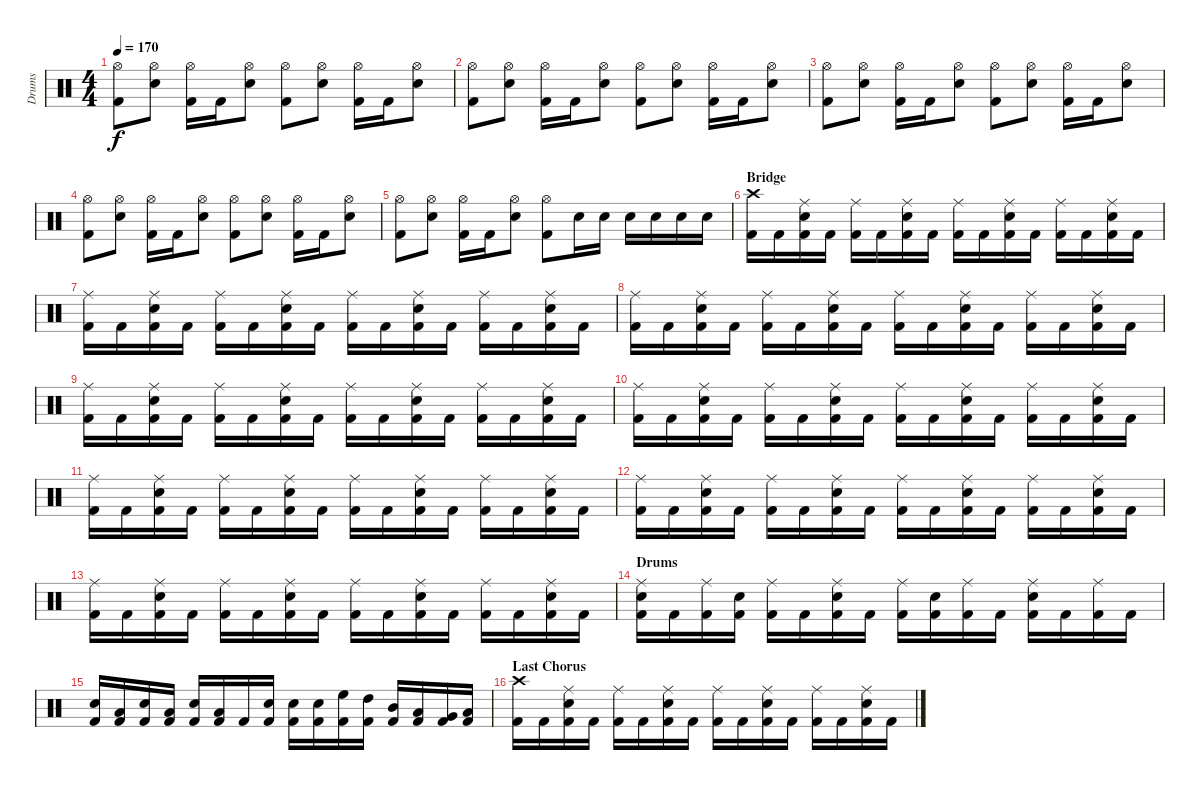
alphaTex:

\track ("Drums" "Drums") {instrument percussion}
\staff {score}
\articulation defaults
\ts (4 4)
\tempo 170
\clef neutral
\ks c
("Hi-Hat (open)" "Kick (hit) 2").8{dy f} ("Hi-Hat (open)" "Electric Snare (hit)").8 ("Hi-Hat (open)" "Kick (hit) 2").16 "Kick (hit) 2".16 ("Hi-Hat (open)" "Electric Snare (hit)").8 ("Hi-Hat (open)" "Kick (hit) 2").8 ("Hi-Hat (open)" "Electric Snare (hit)").8 ("Hi-Hat (open)" "Kick (hit) 2").16 "Kick (hit) 2".16 ("Hi-Hat (open)" "Electric Snare (hit)").8 |
("Hi-Hat (open)" "Kick (hit) 2").8 ("Hi-Hat (open)" "Electric Snare (hit)").8 ("Hi-Hat (open)" "Kick (hit) 2").16 "Kick (hit) 2".16 ("Hi-Hat (open)" "Electric Snare (hit)").8 ("Hi-Hat (open)" "Kick (hit) 2").8 ("Hi-Hat (open)" "Electric Snare (hit)").8 ("Hi-Hat (open)" "Kick (hit) 2").16 "Kick (hit) 2".16 ("Hi-Hat (open)" "Electric Snare (hit)").8 |
("Hi-Hat (open)" "Kick (hit) 2").8 ("Hi-Hat (open)" "Electric Snare (hit)").8 ("Hi-Hat (open)" "Kick (hit) 2").16 "Kick (hit) 2".16 ("Hi-Hat (open)" "Electric Snare (hit)").8 ("Hi-Hat (open)" "Kick (hit) 2").8 ("Hi-Hat (open)" "Electric Snare (hit)").8 ("Hi-Hat (open)" "Kick (hit) 2").16 "Kick (hit) 2".16 ("Hi-Hat (open)" "Electric Snare (hit)").8 |
("Hi-Hat (open)" "Kick (hit) 2").8 ("Hi-Hat (open)" "Electric Snare (hit)").8 ("Hi-Hat (open)" "Kick (hit) 2").16 "Kick (hit) 2".16 ("Hi-Hat (open)" "Electric Snare (hit)").8 ("Hi-Hat (open)" "Kick (hit) 2").8 ("Hi-Hat (open)" "Electric Snare (hit)").8 ("Hi-Hat (open)" "Kick (hit) 2").16 "Kick (hit) 2".16 ("Hi-Hat (open)" "Electric Snare (hit)").8 |
("Hi-Hat (open)" "Kick (hit) 2").8 ("Hi-Hat (open)" "Electric Snare (hit)").8 ("Hi-Hat (open)" "Kick (hit) 2").16 "Kick (hit) 2".16 ("Hi-Hat (open)" "Electric Snare (hit)").8 ("Hi-Hat (open)" "Kick (hit) 2").8 "Electric Snare (hit)".16 "Electric Snare (hit)".16 "Electric Snare (hit)".16 "Electric Snare (hit)".16 "Electric Snare (hit)".16 "Electric Snare (hit)".16 |
\section ("" "Bridge")
("Crash high (hit)" "Kick (hit) 2").16 "Kick (hit) 2".16 ("Ride (middle)" "Electric Snare (hit)" "Kick (hit) 2").16 "Kick (hit) 2".16 ("Ride (middle)" "Kick (hit) 2").16 "Kick (hit) 2".16 ("Ride (middle)" "Electric Snare (hit)" "Kick (hit) 2").16 "Kick (hit) 2".16 ("Ride (middle)" "Kick (hit) 2").16 "Kick (hit) 2".16 ("Ride (middle)" "Electric Snare (hit)" "Kick (hit) 2").16 "Kick (hit) 2".16 ("Ride (middle)" "Kick (hit) 2").16 "Kick (hit) 2".16 ("Ride (middle)" "Electric Snare (hit)" "Kick (hit) 2").16 "Kick (hit) 2".16 |
("Ride (middle)" "Kick (hit) 2").16 "Kick (hit) 2".16 ("Ride (middle)" "Electric Snare (hit)" "Kick (hit) 2").16 "Kick (hit) 2".16 ("Ride (middle)" "Kick (hit) 2").16 "Kick (hit) 2".16 ("Ride (middle)" "Electric Snare (hit)" "Kick (hit) 2").16 "Kick (hit) 2".16 ("Ride (middle)" "Kick (hit) 2").16 "Kick (hit) 2".16 ("Ride (middle)" "Electric Snare (hit)" "Kick (hit) 2").16 "Kick (hit) 2".16 ("Ride (middle)" "Kick (hit) 2").16 "Kick (hit) 2".16 ("Ride (middle)" "Electric Snare (hit)" "Kick (hit) 2").16 "Kick (hit) 2".16 |
("Ride (middle)" "Kick (hit) 2").16 "Kick (hit) 2".16 ("Ride (middle)" "Electric Snare (hit)" "Kick (hit) 2").16 "Kick (hit) 2".16 ("Ride (middle)" "Kick (hit) 2").16 "Kick (hit) 2".16 ("Ride (middle)" "Electric Snare (hit)" "Kick (hit) 2").16 "Kick (hit) 2".16 ("Ride (middle)" "Kick (hit) 2").16 "Kick (hit) 2".16 ("Ride (middle)" "Electric Snare (hit)" "Kick (hit) 2").16 "Kick (hit) 2".16 ("Ride (middle)" "Kick (hit) 2").16 "Kick (hit) 2".16 ("Ride (middle)" "Electric Snare (hit)" "Kick (hit) 2").16 "Kick (hit) 2".16 |
("Ride (middle)" "Kick (hit) 2").16 "Kick (hit) 2".16 ("Ride (middle)" "Electric Snare (hit)" "Kick (hit) 2").16 "Kick (hit) 2".16 ("Ride (middle)" "Kick (hit) 2").16 "Kick (hit) 2".16 ("Ride (middle)" "Electric Snare (hit)" "Kick (hit) 2").16 "Kick (hit) 2".16 ("Ride (middle)" "Kick (hit) 2").16 "Kick (hit) 2".16 ("Ride (middle)" "Electric Snare (hit)" "Kick (hit) 2").16 "Kick (hit) 2".16 ("Ride (middle)" "Kick (hit) 2").16 "Kick (hit) 2".16 ("Ride (middle)" "Electric Snare (hit)" "Kick (hit) 2").16 "Kick (hit) 2".16 |
("Ride (middle)" "Kick (hit) 2").16 "Kick (hit) 2".16 ("Ride (middle)" "Electric Snare (hit)" "Kick (hit) 2").16 "Kick (hit) 2".16 ("Ride (middle)" "Kick (hit) 2").16 "Kick (hit) 2".16 ("Ride (middle)" "Electric Snare (hit)" "Kick (hit) 2").16 "Kick (hit) 2".16 ("Ride (middle)" "Kick (hit) 2").16 "Kick (hit) 2".16 ("Ride (middle)" "Electric Snare (hit)" "Kick (hit) 2").16 "Kick (hit) 2".16 ("Ride (middle)" "Kick (hit) 2").16 "Kick (hit) 2".16 ("Ride (middle)" "Electric Snare (hit)" "Kick (hit) 2").16 "Kick (hit) 2".16 |
("Ride (middle)" "Kick (hit) 2").16 "Kick (hit) 2".16 ("Ride (middle)" "Electric Snare (hit)" "Kick (hit) 2").16 "Kick (hit) 2".16 ("Ride (middle)" "Kick (hit) 2").16 "Kick (hit) 2".16 ("Ride (middle)" "Electric Snare (hit)" "Kick (hit) 2").16 "Kick (hit) 2".16 ("Ride (middle)" "Kick (hit) 2").16 "Kick (hit) 2".16 ("Ride (middle)" "Electric Snare (hit)" "Kick (hit) 2").16 "Kick (hit) 2".16 ("Ride (middle)" "Kick (hit) 2").16 "Kick (hit) 2".16 ("Ride (middle)" "Electric Snare (hit)" "Kick (hit) 2").16 "Kick (hit) 2".16 |
("Ride (middle)" "Kick (hit) 2").16 "Kick (hit) 2".16 ("Ride (middle)" "Electric Snare (hit)" "Kick (hit) 2").16 "Kick (hit) 2".16 ("Ride (middle)" "Kick (hit) 2").16 "Kick (hit) 2".16 ("Ride (middle)" "Electric Snare (hit)" "Kick (hit) 2").16 "Kick (hit) 2".16 ("Ride (middle)" "Kick (hit) 2").16 "Kick (hit) 2".16 ("Ride (middle)" "Electric Snare (hit)" "Kick (hit) 2").16 "Kick (hit) 2".16 ("Ride (middle)" "Kick (hit) 2").16 "Kick (hit) 2".16 ("Ride (middle)" "Electric Snare (hit)" "Kick (hit) 2").16 "Kick (hit) 2".16 |
("Ride (middle)" "Kick (hit) 2").16 "Kick (hit) 2".16 ("Ride (middle)" "Electric Snare (hit)" "Kick (hit) 2").16 "Kick (hit) 2".16 ("Ride (middle)" "Kick (hit) 2").16 "Kick (hit) 2".16 ("Ride (middle)" "Electric Snare (hit)" "Kick (hit) 2").16 "Kick (hit) 2".16 ("Ride (middle)" "Kick (hit) 2").16 "Kick (hit) 2".16 ("Ride (middle)" "Electric Snare (hit)" "Kick (hit) 2").16 "Kick (hit) 2".16 ("Ride (middle)" "Kick (hit) 2").16 "Kick (hit) 2".16 ("Ride (middle)" "Electric Snare (hit)" "Kick (hit) 2").16 "Kick (hit) 2".16 |
\section ("" "Drums")
("Ride (middle)" "Electric Snare (hit)" "Kick (hit) 2").16 "Kick (hit) 2".16 ("Ride (middle)" "Kick (hit) 2").16 ("Electric Snare (hit)" "Kick (hit) 2").16 ("Ride (middle)" "Kick (hit) 2").16 "Kick (hit) 2".16 ("Ride (middle)" "Electric Snare (hit)" "Kick (hit) 2").16 "Kick (hit) 2".16 ("Ride (middle)" "Kick (hit) 2").16 ("Electric Snare (hit)" "Kick (hit) 2").16 ("Ride (middle)" "Kick (hit) 2").16 "Kick (hit) 2".16 ("Ride (middle)" "Electric Snare (hit)" "Kick (hit) 2").16 "Kick (hit) 2".16 ("Ride (middle)" "Kick (hit) 2").16 "Kick (hit) 2".16 |
("Electric Snare (hit)" "Kick (hit) 2").16 ("Low Tom (hit)" "Kick (hit) 2").16 ("Electric Snare (hit)" "Kick (hit) 2").16 ("Low Tom (hit)" "Kick (hit) 2").16 ("Electric Snare (hit)" "Kick (hit) 2").16 ("Low Tom (hit)" "Kick (hit) 2").16 "Kick (hit) 2".16 ("Electric Snare (hit)" "Kick (hit) 2").16 ("Electric Snare (hit)" "Kick (hit) 2").16 ("Electric Snare (hit)" "Kick (hit) 2").16 ("High Floor Tom (hit)" "Kick (hit) 2").16 ("High Tom (hit)" "Kick (hit) 2").16 ("Mid Tom (hit)" "Kick (hit) 2").16 ("Low Tom (hit)" "Kick (hit) 2").16 ("Very Low Tom (hit)" "Kick (hit) 2").16 ("Low Floor Tom (hit)" "Kick (hit) 2").16 |
\section ("" "Last Chorus")
("Crash high (hit)" "Kick (hit) 2").16 "Kick (hit) 2".16 ("Ride (middle)" "Electric Snare (hit)" "Kick (hit) 2").16 "Kick (hit) 2".16 ("Ride (middle)" "Kick (hit) 2").16 "Kick (hit) 2".16 ("Ride (middle)" "Electric Snare (hit)" "Kick (hit) 2").16 "Kick (hit) 2".16 ("Ride (middle)" "Kick (hit) 2").16 "Kick (hit) 2".16 ("Ride (middle)" "Electric Snare (hit)" "Kick (hit) 2").16 "Kick (hit) 2".16 ("Ride (middle)" "Kick (hit) 2").16 "Kick (hit) 2".16 ("Ride (middle)" "Electric Snare (hit)" "Kick (hit) 2").16 "Kick (hit) 2".16
